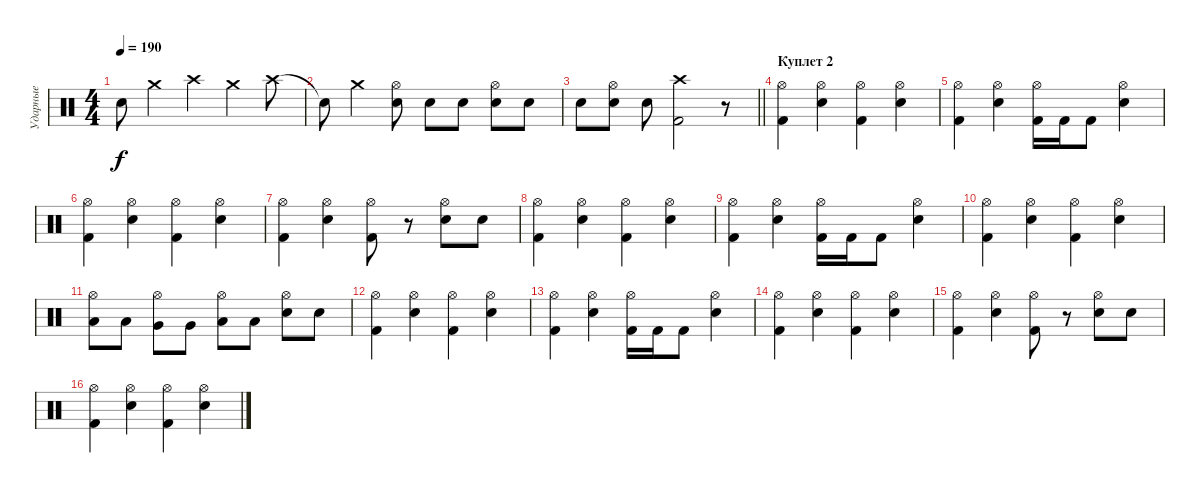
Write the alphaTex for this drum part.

\track ("Ударные" "Ударные") {instrument percussion}
\staff {score}
\articulation defaults
\ts (4 4)
\tempo 190
\clef neutral
\ks c "Snare (hit)"{t}.8{dy f} "Crash medium (hit)".4 "Crash high (hit)".4 "Crash medium (hit)".4 "Crash high (hit)".8
|
"Snare (hit)"{t}.8 "Crash medium (hit)".4 ("Hi-Hat (open)" "Snare (hit) 2").8 "Electric Snare (hit)".8 "Electric Snare (hit)".8 ("Hi-Hat (open)" "Snare (hit) 2").8 "Electric Snare (hit)".8 |
\barLineRight lightlight "Electric Snare (hit)".8
("Hi-Hat (open)" "Snare (hit) 2").8 "Electric Snare (hit)".8 ("Kick (hit) 2" "Crash high (hit)").2 r.8 |
\section ("" "Куплет 2")
("Hi-Hat (open)" "Kick (hit) 2").4 ("Hi-Hat (open)" "Electric Snare (hit)").4 ("Hi-Hat (open)" "Kick (hit) 2").4 ("Hi-Hat (open)" "Electric Snare (hit)").4 |
("Hi-Hat (open)" "Kick (hit) 2").4 ("Hi-Hat (open)" "Electric Snare (hit)").4 ("Hi-Hat (open)" "Kick (hit) 2").16 "Kick (hit) 2".16 "Kick (hit) 2".8 ("Hi-Hat (open)" "Electric Snare (hit)").4 |
("Hi-Hat (open)" "Kick (hit) 2").4 ("Hi-Hat (open)" "Electric Snare (hit)").4 ("Hi-Hat (open)" "Kick (hit) 2").4 ("Hi-Hat (open)" "Electric Snare (hit)").4 |
("Hi-Hat (open)" "Kick (hit) 2").4 ("Hi-Hat (open)" "Electric Snare (hit)").4 ("Hi-Hat (open)" "Kick (hit) 2").8 r.8 ("Hi-Hat (open)" "Electric Snare (hit)").8 "Snare (hit) 2".8 |
("Hi-Hat (open)" "Kick (hit) 2").4 ("Hi-Hat (open)" "Electric Snare (hit)").4 ("Hi-Hat (open)" "Kick (hit) 2").4 ("Hi-Hat (open)" "Electric Snare (hit)").4 |
("Hi-Hat (open)" "Kick (hit) 2").4 ("Hi-Hat (open)" "Electric Snare (hit)").4 ("Hi-Hat (open)" "Kick (hit) 2").16 "Kick (hit) 2".16 "Kick (hit) 2".8 ("Hi-Hat (open)" "Electric Snare (hit)").4 |
("Hi-Hat (open)" "Kick (hit) 2").4 ("Hi-Hat (open)" "Electric Snare (hit)").4 ("Hi-Hat (open)" "Kick (hit) 2").4 ("Hi-Hat (open)" "Electric Snare (hit)").4 |
("Hi-Hat (open)" "Low Tom (hit)").8 "Low Tom (hit)".8 ("Hi-Hat (open)" "Very Low Tom (hit)").8 "Very Low Tom (hit)".8 ("Hi-Hat (open)" "Low Floor Tom (hit)").8 "Low Floor Tom (hit)".8 ("Hi-Hat (open)" "Electric Snare (hit)").8 "Electric Snare (hit)".8 |
("Hi-Hat (open)" "Kick (hit) 2").4 ("Hi-Hat (open)" "Electric Snare (hit)").4 ("Hi-Hat (open)" "Kick (hit) 2").4 ("Hi-Hat (open)" "Electric Snare (hit)").4 |
("Hi-Hat (open)" "Kick (hit) 2").4 ("Hi-Hat (open)" "Electric Snare (hit)").4 ("Hi-Hat (open)" "Kick (hit) 2").16 "Kick (hit) 2".16 "Kick (hit) 2".8 ("Hi-Hat (open)" "Electric Snare (hit)").4 |
("Hi-Hat (open)" "Kick (hit) 2").4 ("Hi-Hat (open)" "Electric Snare (hit)").4 ("Hi-Hat (open)" "Kick (hit) 2").4 ("Hi-Hat (open)" "Electric Snare (hit)").4 |
("Hi-Hat (open)" "Kick (hit) 2").4 ("Hi-Hat (open)" "Electric Snare (hit)").4 ("Hi-Hat (open)" "Kick (hit) 2").8 r.8 ("Hi-Hat (open)" "Electric Snare (hit)").8 "Snare (hit) 2".8 |
("Hi-Hat (open)" "Kick (hit) 2").4 ("Hi-Hat (open)" "Electric Snare (hit)").4 ("Hi-Hat (open)" "Kick (hit) 2").4 ("Hi-Hat (open)" "Electric Snare (hit)").4
